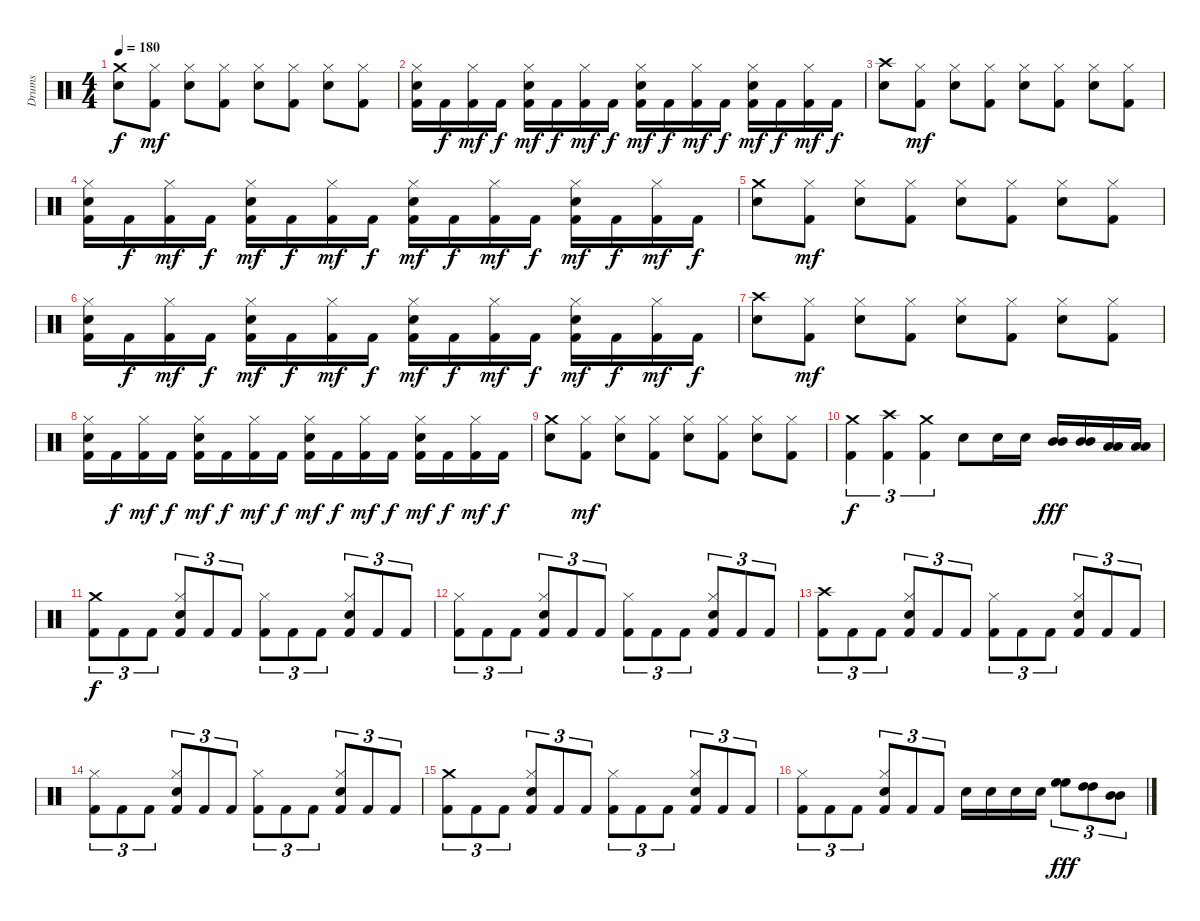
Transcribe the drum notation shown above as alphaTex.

\track ("Drums" "Drums") {instrument percussion}
\staff {score}
\articulation defaults
\ts (4 4)
\tempo 180
\clef neutral
\ks c
("Crash medium (hit)" "Snare (hit) 2").8{dy f} ("Hi-Hat (closed)" "Kick (hit) 2").8{dy mf} ("Hi-Hat (closed)" "Snare (hit) 2").8 ("Hi-Hat (closed)" "Kick (hit) 2").8 ("Hi-Hat (closed)" "Snare (hit) 2").8 ("Hi-Hat (closed)" "Kick (hit) 2").8 ("Hi-Hat (closed)" "Snare (hit) 2").8 ("Hi-Hat (closed)" "Kick (hit) 2").8 |
("Hi-Hat (closed)" "Snare (hit) 2" "Kick (hit) 2").16 "Kick (hit) 2".16{dy f} ("Hi-Hat (closed)" "Kick (hit) 2").16{dy mf} "Kick (hit) 2".16{dy f} ("Hi-Hat (closed)" "Snare (hit) 2" "Kick (hit) 2").16{dy mf} "Kick (hit) 2".16{dy f} ("Hi-Hat (closed)" "Kick (hit) 2").16{dy mf} "Kick (hit) 2".16{dy f} ("Hi-Hat (closed)" "Snare (hit) 2" "Kick (hit) 2").16{dy mf} "Kick (hit) 2".16{dy f} ("Hi-Hat (closed)" "Kick (hit) 2").16{dy mf} "Kick (hit) 2".16{dy f} ("Hi-Hat (closed)" "Snare (hit) 2" "Kick (hit) 2").16{dy mf} "Kick (hit) 2".16{dy f} ("Hi-Hat (closed)" "Kick (hit) 2").16{dy mf} "Kick (hit) 2".16{dy f} |
("Crash high (hit)" "Snare (hit) 2").8 ("Hi-Hat (closed)" "Kick (hit) 2").8{dy mf} ("Hi-Hat (closed)" "Snare (hit) 2").8 ("Hi-Hat (closed)" "Kick (hit) 2").8 ("Hi-Hat (closed)" "Snare (hit) 2").8 ("Hi-Hat (closed)" "Kick (hit) 2").8 ("Hi-Hat (closed)" "Snare (hit) 2").8 ("Hi-Hat (closed)" "Kick (hit) 2").8 |
("Hi-Hat (closed)" "Snare (hit) 2" "Kick (hit) 2").16 "Kick (hit) 2".16{dy f} ("Hi-Hat (closed)" "Kick (hit) 2").16{dy mf} "Kick (hit) 2".16{dy f} ("Hi-Hat (closed)" "Snare (hit) 2" "Kick (hit) 2").16{dy mf} "Kick (hit) 2".16{dy f} ("Hi-Hat (closed)" "Kick (hit) 2").16{dy mf} "Kick (hit) 2".16{dy f} ("Hi-Hat (closed)" "Snare (hit) 2" "Kick (hit) 2").16{dy mf} "Kick (hit) 2".16{dy f} ("Hi-Hat (closed)" "Kick (hit) 2").16{dy mf} "Kick (hit) 2".16{dy f} ("Hi-Hat (closed)" "Snare (hit) 2" "Kick (hit) 2").16{dy mf} "Kick (hit) 2".16{dy f} ("Hi-Hat (closed)" "Kick (hit) 2").16{dy mf} "Kick (hit) 2".16{dy f} |
("Crash medium (hit)" "Snare (hit) 2").8 ("Hi-Hat (closed)" "Kick (hit) 2").8{dy mf} ("Hi-Hat (closed)" "Snare (hit) 2").8 ("Hi-Hat (closed)" "Kick (hit) 2").8 ("Hi-Hat (closed)" "Snare (hit) 2").8 ("Hi-Hat (closed)" "Kick (hit) 2").8 ("Hi-Hat (closed)" "Snare (hit) 2").8 ("Hi-Hat (closed)" "Kick (hit) 2").8 |
("Hi-Hat (closed)" "Snare (hit) 2" "Kick (hit) 2").16 "Kick (hit) 2".16{dy f} ("Hi-Hat (closed)" "Kick (hit) 2").16{dy mf} "Kick (hit) 2".16{dy f} ("Hi-Hat (closed)" "Snare (hit) 2" "Kick (hit) 2").16{dy mf} "Kick (hit) 2".16{dy f} ("Hi-Hat (closed)" "Kick (hit) 2").16{dy mf} "Kick (hit) 2".16{dy f} ("Hi-Hat (closed)" "Snare (hit) 2" "Kick (hit) 2").16{dy mf} "Kick (hit) 2".16{dy f} ("Hi-Hat (closed)" "Kick (hit) 2").16{dy mf} "Kick (hit) 2".16{dy f} ("Hi-Hat (closed)" "Snare (hit) 2" "Kick (hit) 2").16{dy mf} "Kick (hit) 2".16{dy f} ("Hi-Hat (closed)" "Kick (hit) 2").16{dy mf} "Kick (hit) 2".16{dy f} |
("Crash high (hit)" "Snare (hit) 2").8 ("Hi-Hat (closed)" "Kick (hit) 2").8{dy mf} ("Hi-Hat (closed)" "Snare (hit) 2").8 ("Hi-Hat (closed)" "Kick (hit) 2").8 ("Hi-Hat (closed)" "Snare (hit) 2").8 ("Hi-Hat (closed)" "Kick (hit) 2").8 ("Hi-Hat (closed)" "Snare (hit) 2").8 ("Hi-Hat (closed)" "Kick (hit) 2").8 |
("Hi-Hat (closed)" "Snare (hit) 2" "Kick (hit) 2").16 "Kick (hit) 2".16{dy f} ("Hi-Hat (closed)" "Kick (hit) 2").16{dy mf} "Kick (hit) 2".16{dy f} ("Hi-Hat (closed)" "Snare (hit) 2" "Kick (hit) 2").16{dy mf} "Kick (hit) 2".16{dy f} ("Hi-Hat (closed)" "Kick (hit) 2").16{dy mf} "Kick (hit) 2".16{dy f} ("Hi-Hat (closed)" "Snare (hit) 2" "Kick (hit) 2").16{dy mf} "Kick (hit) 2".16{dy f} ("Hi-Hat (closed)" "Kick (hit) 2").16{dy mf} "Kick (hit) 2".16{dy f} ("Hi-Hat (closed)" "Snare (hit) 2" "Kick (hit) 2").16{dy mf} "Kick (hit) 2".16{dy f} ("Hi-Hat (closed)" "Kick (hit) 2").16{dy mf} "Kick (hit) 2".16{dy f} |
("Crash medium (hit)" "Snare (hit) 2").8 ("Hi-Hat (closed)" "Kick (hit) 2").8{dy mf} ("Hi-Hat (closed)" "Snare (hit) 2").8 ("Hi-Hat (closed)" "Kick (hit) 2").8 ("Hi-Hat (closed)" "Snare (hit) 2").8 ("Hi-Hat (closed)" "Kick (hit) 2").8 ("Hi-Hat (closed)" "Snare (hit) 2").8 ("Hi-Hat (closed)" "Kick (hit) 2").8 |
("Crash medium (hit)" "Kick (hit) 2").4{tu (3 2) dy f} ("Crash high (hit)" "Kick (hit) 2").4{tu (3 2)} ("Crash medium (hit)" "Kick (hit) 2").4{tu (3 2)} "Snare (hit) 2".8 "Snare (hit) 2".16 "Snare (hit) 2".16 ("Mid Tom (hit)" "Mid Tom (hit)").16{dy fff} ("Mid Tom (hit)" "Mid Tom (hit)").16 ("Low Tom (hit)" "Low Tom (hit)").16 ("Low Tom (hit)" "Low Tom (hit)").16 |
("Crash medium (hit)" "Kick (hit) 2").8{tu (3 2) dy f} "Kick (hit) 2".8{tu (3 2)} "Kick (hit) 2".8{tu (3 2)} ("Hi-Hat (closed)" "Snare (hit) 2" "Kick (hit) 2").8{tu (3 2)} "Kick (hit) 2".8{tu (3 2)} "Kick (hit) 2".8{tu (3 2)} ("Hi-Hat (closed)" "Kick (hit) 2").8{tu (3 2)} "Kick (hit) 2".8{tu (3 2)} "Kick (hit) 2".8{tu (3 2)} ("Hi-Hat (closed)" "Snare (hit) 2" "Kick (hit) 2").8{tu (3 2)} "Kick (hit) 2".8{tu (3 2)} "Kick (hit) 2".8{tu (3 2)} |
("Hi-Hat (closed)" "Kick (hit) 2").8{tu (3 2)} "Kick (hit) 2".8{tu (3 2)} "Kick (hit) 2".8{tu (3 2)} ("Hi-Hat (closed)" "Snare (hit) 2" "Kick (hit) 2").8{tu (3 2)} "Kick (hit) 2".8{tu (3 2)} "Kick (hit) 2".8{tu (3 2)} ("Hi-Hat (closed)" "Kick (hit) 2").8{tu (3 2)} "Kick (hit) 2".8{tu (3 2)} "Kick (hit) 2".8{tu (3 2)} ("Hi-Hat (closed)" "Snare (hit) 2" "Kick (hit) 2").8{tu (3 2)} "Kick (hit) 2".8{tu (3 2)} "Kick (hit) 2".8{tu (3 2)} |
("Crash high (hit)" "Kick (hit) 2").8{tu (3 2)} "Kick (hit) 2".8{tu (3 2)} "Kick (hit) 2".8{tu (3 2)} ("Hi-Hat (closed)" "Snare (hit) 2" "Kick (hit) 2").8{tu (3 2)} "Kick (hit) 2".8{tu (3 2)} "Kick (hit) 2".8{tu (3 2)} ("Hi-Hat (closed)" "Kick (hit) 2").8{tu (3 2)} "Kick (hit) 2".8{tu (3 2)} "Kick (hit) 2".8{tu (3 2)} ("Hi-Hat (closed)" "Snare (hit) 2" "Kick (hit) 2").8{tu (3 2)} "Kick (hit) 2".8{tu (3 2)} "Kick (hit) 2".8{tu (3 2)} |
("Hi-Hat (closed)" "Kick (hit) 2").8{tu (3 2)} "Kick (hit) 2".8{tu (3 2)} "Kick (hit) 2".8{tu (3 2)} ("Hi-Hat (closed)" "Snare (hit) 2" "Kick (hit) 2").8{tu (3 2)} "Kick (hit) 2".8{tu (3 2)} "Kick (hit) 2".8{tu (3 2)} ("Hi-Hat (closed)" "Kick (hit) 2").8{tu (3 2)} "Kick (hit) 2".8{tu (3 2)} "Kick (hit) 2".8{tu (3 2)} ("Hi-Hat (closed)" "Snare (hit) 2" "Kick (hit) 2").8{tu (3 2)} "Kick (hit) 2".8{tu (3 2)} "Kick (hit) 2".8{tu (3 2)} |
("Crash medium (hit)" "Kick (hit) 2").8{tu (3 2)} "Kick (hit) 2".8{tu (3 2)} "Kick (hit) 2".8{tu (3 2)} ("Hi-Hat (closed)" "Snare (hit) 2" "Kick (hit) 2").8{tu (3 2)} "Kick (hit) 2".8{tu (3 2)} "Kick (hit) 2".8{tu (3 2)} ("Hi-Hat (closed)" "Kick (hit) 2").8{tu (3 2)} "Kick (hit) 2".8{tu (3 2)} "Kick (hit) 2".8{tu (3 2)} ("Hi-Hat (closed)" "Snare (hit) 2" "Kick (hit) 2").8{tu (3 2)} "Kick (hit) 2".8{tu (3 2)} "Kick (hit) 2".8{tu (3 2)} |
("Hi-Hat (closed)" "Kick (hit) 2").8{tu (3 2)} "Kick (hit) 2".8{tu (3 2)} "Kick (hit) 2".8{tu (3 2)} ("Hi-Hat (closed)" "Snare (hit) 2" "Kick (hit) 2").8{tu (3 2)} "Kick (hit) 2".8{tu (3 2)} "Kick (hit) 2".8{tu (3 2)} "Snare (hit) 2".16 "Snare (hit) 2".16 "Snare (hit) 2".16 "Snare (hit) 2".16 ("High Floor Tom (hit)" "High Floor Tom (hit)").8{tu (3 2) dy fff} ("High Tom (hit)" "High Tom (hit)").8{tu (3 2)} ("Mid Tom (hit)" "Mid Tom (hit)").8{tu (3 2)}
